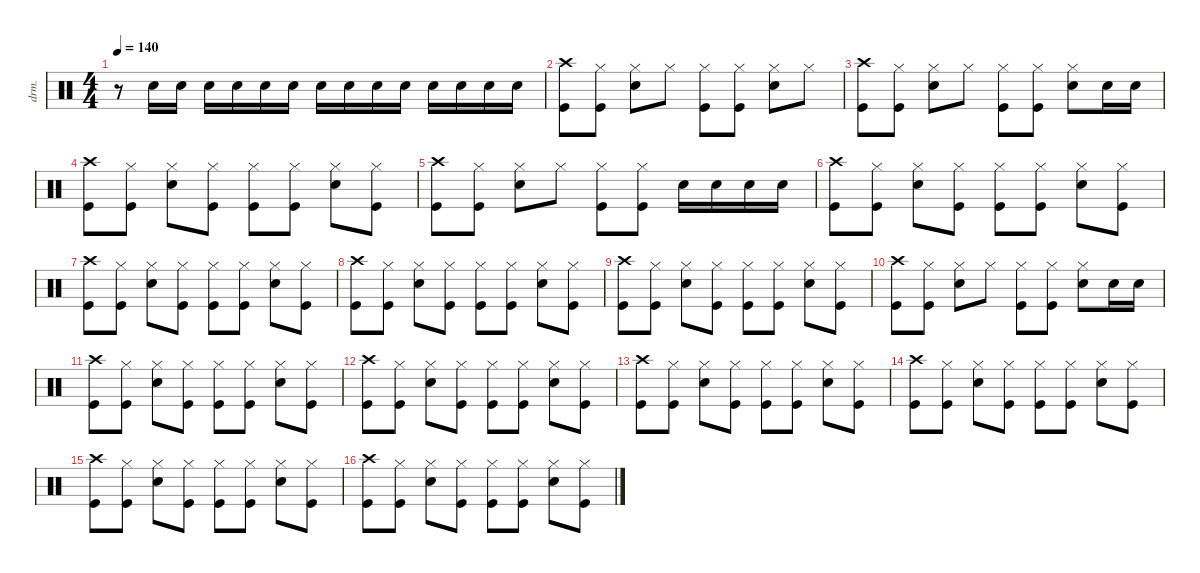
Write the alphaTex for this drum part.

\defaultSystemsLayout 4
\hideDynamics
\bracketExtendMode nobrackets
\otherSystemsTrackNameOrientation horizontal
\track ("Drums" "drm.") {instrument percussion}
\staff {score}
\articulation defaults
\ts (4 4)
\tempo 140
\clef neutral
\ks c
r.8{dy f} "Snare (hit) 2".16 "Snare (hit) 2".16 "Snare (hit) 2".16 "Snare (hit) 2".16 "Snare (hit) 2".16 "Snare (hit) 2".16 "Snare (hit) 2".16 "Snare (hit) 2".16 "Snare (hit) 2".16 "Snare (hit) 2".16 "Snare (hit) 2".16 "Snare (hit) 2".16 "Snare (hit) 2".16 "Snare (hit) 2".16 |
("Crash high (hit)" "Kick (hit)").8 ("Kick (hit)" "Hi-Hat (closed)").8 ("Snare (hit) 2" "Hi-Hat (closed)").8 "Hi-Hat (closed)".8 ("Kick (hit)" "Hi-Hat (closed)").8 ("Kick (hit)" "Hi-Hat (closed)").8 ("Snare (hit) 2" "Hi-Hat (closed)").8 "Hi-Hat (closed)".8 |
("Crash high (hit)" "Kick (hit)").8 ("Kick (hit)" "Hi-Hat (closed)").8 ("Snare (hit) 2" "Hi-Hat (closed)").8 "Hi-Hat (closed)".8 ("Kick (hit)" "Hi-Hat (closed)").8 ("Kick (hit)" "Hi-Hat (closed)").8 ("Snare (hit) 2" "Hi-Hat (closed)").8 "Snare (hit) 2".16 "Snare (hit) 2".16 |
("Crash high (hit)" "Kick (hit)").8 ("Kick (hit)" "Hi-Hat (closed)").8 ("Snare (hit) 2" "Hi-Hat (closed)").8 ("Kick (hit)" "Hi-Hat (closed)").8 ("Kick (hit)" "Hi-Hat (closed)").8 ("Kick (hit)" "Hi-Hat (closed)").8 ("Snare (hit) 2" "Hi-Hat (closed)").8 ("Kick (hit)" "Hi-Hat (closed)").8 |
("Crash high (hit)" "Kick (hit)").8 ("Kick (hit)" "Hi-Hat (closed)").8 ("Snare (hit) 2" "Hi-Hat (closed)").8 "Hi-Hat (closed)".8 ("Kick (hit)" "Hi-Hat (closed)").8 ("Kick (hit)" "Hi-Hat (closed)").8 "Snare (hit) 2".16 "Snare (hit) 2".16 "Snare (hit) 2".16 "Snare (hit) 2".16 |
("Crash high (hit)" "Kick (hit)").8 ("Kick (hit)" "Hi-Hat (closed)").8 ("Snare (hit) 2" "Hi-Hat (closed)").8 ("Kick (hit)" "Hi-Hat (closed)").8 ("Kick (hit)" "Hi-Hat (closed)").8 ("Kick (hit)" "Hi-Hat (closed)").8 ("Snare (hit) 2" "Hi-Hat (closed)").8 ("Kick (hit)" "Hi-Hat (closed)").8 |
("Crash high (hit)" "Kick (hit)").8 ("Kick (hit)" "Hi-Hat (closed)").8 ("Snare (hit) 2" "Hi-Hat (closed)").8 ("Kick (hit)" "Hi-Hat (closed)").8 ("Kick (hit)" "Hi-Hat (closed)").8 ("Kick (hit)" "Hi-Hat (closed)").8 ("Snare (hit) 2" "Hi-Hat (closed)").8 ("Kick (hit)" "Hi-Hat (closed)").8 |
("Crash high (hit)" "Kick (hit)").8 ("Kick (hit)" "Hi-Hat (closed)").8 ("Snare (hit) 2" "Hi-Hat (closed)").8 ("Kick (hit)" "Hi-Hat (closed)").8 ("Kick (hit)" "Hi-Hat (closed)").8 ("Kick (hit)" "Hi-Hat (closed)").8 ("Snare (hit) 2" "Hi-Hat (closed)").8 ("Kick (hit)" "Hi-Hat (closed)").8 |
("Crash high (hit)" "Kick (hit)").8 ("Kick (hit)" "Hi-Hat (closed)").8 ("Snare (hit) 2" "Hi-Hat (closed)").8 ("Kick (hit)" "Hi-Hat (closed)").8 ("Kick (hit)" "Hi-Hat (closed)").8 ("Kick (hit)" "Hi-Hat (closed)").8 ("Snare (hit) 2" "Hi-Hat (closed)").8 ("Kick (hit)" "Hi-Hat (closed)").8 |
("Crash high (hit)" "Kick (hit)").8 ("Kick (hit)" "Hi-Hat (closed)").8 ("Snare (hit) 2" "Hi-Hat (closed)").8 "Hi-Hat (closed)".8 ("Kick (hit)" "Hi-Hat (closed)").8 ("Kick (hit)" "Hi-Hat (closed)").8 ("Snare (hit) 2" "Hi-Hat (closed)").8 "Snare (hit) 2".16 "Snare (hit) 2".16 |
("Crash high (hit)" "Kick (hit)").8 ("Kick (hit)" "Hi-Hat (closed)").8 ("Snare (hit) 2" "Hi-Hat (closed)").8 ("Kick (hit)" "Hi-Hat (closed)").8 ("Kick (hit)" "Hi-Hat (closed)").8 ("Kick (hit)" "Hi-Hat (closed)").8 ("Snare (hit) 2" "Hi-Hat (closed)").8 ("Kick (hit)" "Hi-Hat (closed)").8 |
("Crash high (hit)" "Kick (hit)").8 ("Kick (hit)" "Hi-Hat (closed)").8 ("Snare (hit) 2" "Hi-Hat (closed)").8 ("Kick (hit)" "Hi-Hat (closed)").8 ("Kick (hit)" "Hi-Hat (closed)").8 ("Kick (hit)" "Hi-Hat (closed)").8 ("Snare (hit) 2" "Hi-Hat (closed)").8 ("Kick (hit)" "Hi-Hat (closed)").8 |
("Crash high (hit)" "Kick (hit)").8 ("Kick (hit)" "Hi-Hat (closed)").8 ("Snare (hit) 2" "Hi-Hat (closed)").8 ("Kick (hit)" "Hi-Hat (closed)").8 ("Kick (hit)" "Hi-Hat (closed)").8 ("Kick (hit)" "Hi-Hat (closed)").8 ("Snare (hit) 2" "Hi-Hat (closed)").8 ("Kick (hit)" "Hi-Hat (closed)").8 |
("Crash high (hit)" "Kick (hit)").8 ("Kick (hit)" "Hi-Hat (closed)").8 ("Snare (hit) 2" "Hi-Hat (closed)").8 ("Kick (hit)" "Hi-Hat (closed)").8 ("Kick (hit)" "Hi-Hat (closed)").8 ("Kick (hit)" "Hi-Hat (closed)").8 ("Snare (hit) 2" "Hi-Hat (closed)").8 ("Kick (hit)" "Hi-Hat (closed)").8 |
("Crash high (hit)" "Kick (hit)").8 ("Kick (hit)" "Hi-Hat (closed)").8 ("Snare (hit) 2" "Hi-Hat (closed)").8 ("Kick (hit)" "Hi-Hat (closed)").8 ("Kick (hit)" "Hi-Hat (closed)").8 ("Kick (hit)" "Hi-Hat (closed)").8 ("Snare (hit) 2" "Hi-Hat (closed)").8 ("Kick (hit)" "Hi-Hat (closed)").8 |
("Crash high (hit)" "Kick (hit)").8 ("Kick (hit)" "Hi-Hat (closed)").8 ("Snare (hit) 2" "Hi-Hat (closed)").8 ("Kick (hit)" "Hi-Hat (closed)").8 ("Kick (hit)" "Hi-Hat (closed)").8 ("Kick (hit)" "Hi-Hat (closed)").8 ("Snare (hit) 2" "Hi-Hat (closed)").8 ("Kick (hit)" "Hi-Hat (closed)").8
